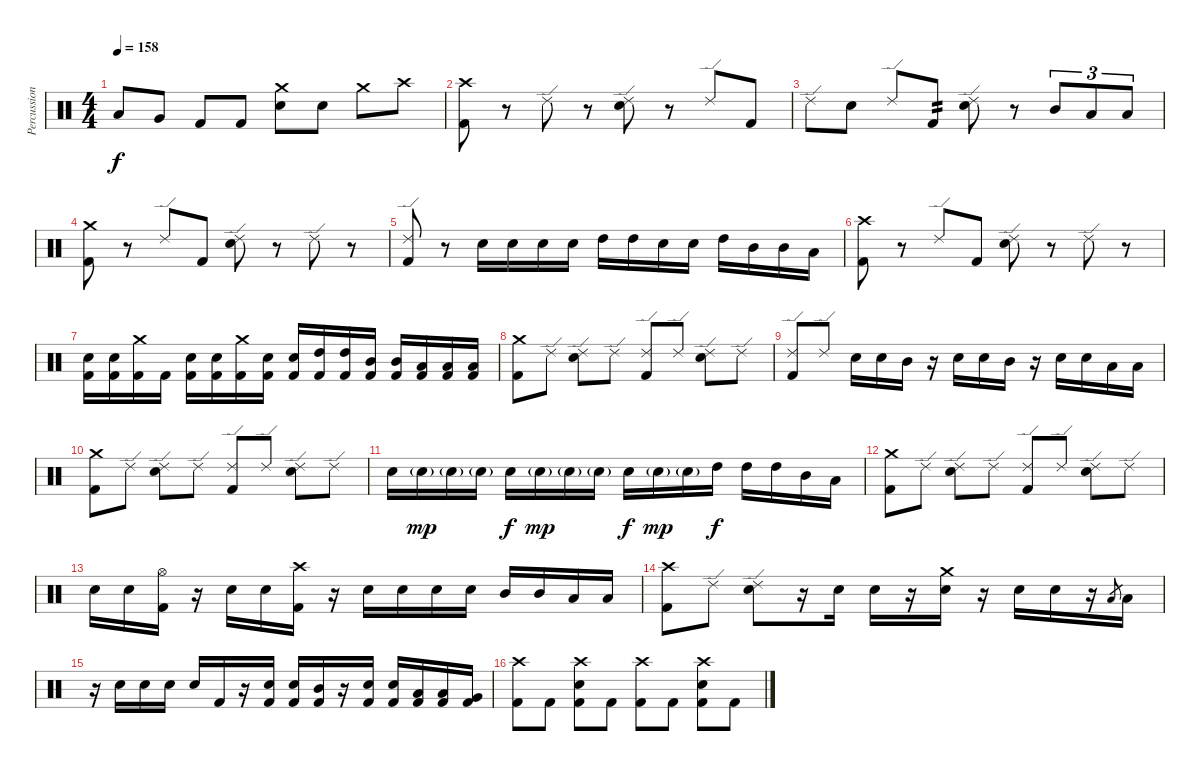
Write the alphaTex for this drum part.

\track ("Percussion" "Percussion") {instrument percussion}
\staff {score}
\articulation defaults
\ts (4 4)
\tempo 158
\clef neutral
\ks c "Low Tom (hit)".8{dy f} "Very Low Tom (hit)".8 "Kick (hit) 2".8 "Kick (hit) 2".8
("Crash medium (hit)" "Electric Snare (hit)").8 "Electric Snare (hit)".8 "Crash medium (hit)".8 "Crash high (hit)".8 |
("Crash high (hit)" "Kick (hit) 2").8 r.8 "Ride (edge) 2".8 r.8 ("Ride (edge) 2" "Electric Snare (hit)").8 r.8 "Ride (edge) 2".8 "Kick (hit) 2".8 |
"Ride (edge) 2".8 "Electric Snare (hit)".8 "Ride (edge) 2".8 "Kick (hit) 2".8{tp 2} ("Ride (edge) 2" "Electric Snare (hit)").8 r.8 "Mid Tom (hit)".8{tu (3 2)} "Low Tom (hit)".8{tu (3 2)} "Low Tom (hit)".8{tu (3 2)} |
("Crash medium (hit)" "Kick (hit) 2").8 r.8 "Ride (edge) 2".8 "Kick (hit) 2".8 ("Ride (edge) 2" "Electric Snare (hit)").8 r.8 "Ride (edge) 2".8 r.8 |
("Ride (edge) 2" "Kick (hit) 2").8 r.8 "Electric Snare (hit)".16 "Electric Snare (hit)".16 "Electric Snare (hit)".16 "Electric Snare (hit)".16 "High Tom (hit)".16 "High Tom (hit)".16 "Electric Snare (hit)".16 "Electric Snare (hit)".16 "High Tom (hit)".16 "Mid Tom (hit)".16 "Mid Tom (hit)".16 "Low Tom (hit)".16 |
("Crash high (hit)" "Kick (hit) 2").8 r.8 "Ride (edge) 2".8 "Kick (hit) 2".8 ("Ride (edge) 2" "Electric Snare (hit)").8 r.8 "Ride (edge) 2".8 r.8 |
("Electric Snare (hit)" "Kick (hit) 2").16 ("Electric Snare (hit)" "Kick (hit) 2").16 ("Crash medium (hit)" "Kick (hit) 2").16 "Kick (hit) 2".16 ("Electric Snare (hit)" "Kick (hit) 2").16 ("Electric Snare (hit)" "Kick (hit) 2").16 ("Crash medium (hit)" "Kick (hit) 2").16 ("Electric Snare (hit)" "Kick (hit) 2").16 ("Electric Snare (hit)" "Kick (hit) 2").16 ("High Tom (hit)" "Kick (hit) 2").16 ("High Tom (hit)" "Kick (hit) 2").16 ("Mid Tom (hit)" "Kick (hit) 2").16 ("Mid Tom (hit)" "Kick (hit) 2").16 ("Low Tom (hit)" "Kick (hit) 2").16 ("Low Tom (hit)" "Kick (hit) 2").16 ("Low Tom (hit)" "Kick (hit) 2").16 |
("Crash medium (hit)" "Kick (hit) 2").8 "Ride (edge) 2".8 ("Ride (edge) 2" "Electric Snare (hit)").8 "Ride (edge) 2".8 ("Ride (edge) 2" "Kick (hit) 2").8 "Ride (edge) 2".8 ("Ride (edge) 2" "Electric Snare (hit)").8 "Ride (edge) 2".8 |
("Ride (edge) 2" "Kick (hit) 2").8 "Ride (edge) 2".8 "Electric Snare (hit)".16 "Electric Snare (hit)".16 "Mid Tom (hit)".16 r.16 "Electric Snare (hit)".16 "Electric Snare (hit)".16 "Mid Tom (hit)".16 r.16 "Electric Snare (hit)".16 "Electric Snare (hit)".16 "Low Tom (hit)".16 "Low Tom (hit)".16 |
("Crash medium (hit)" "Kick (hit) 2").8 "Ride (edge) 2".8 ("Ride (edge) 2" "Electric Snare (hit)").8 "Ride (edge) 2".8 ("Ride (edge) 2" "Kick (hit) 2").8 "Ride (edge) 2".8 ("Ride (edge) 2" "Electric Snare (hit)").8 "Ride (edge) 2".8 |
"Electric Snare (hit)".16 "Electric Snare (hit)"{g}.16{dy mp} "Electric Snare (hit)"{g}.16 "Electric Snare (hit)"{g}.16 "Electric Snare (hit)".16{dy f} "Electric Snare (hit)"{g}.16{dy mp} "Electric Snare (hit)"{g}.16 "Electric Snare (hit)"{g}.16 "Electric Snare (hit)".16{dy f} "Electric Snare (hit)"{g}.16{dy mp} "Electric Snare (hit)"{g}.16 "High Tom (hit)".16{dy f} "High Tom (hit)".16 "High Tom (hit)".16 "Mid Tom (hit)".16 "Low Tom (hit)".16 |
("Crash medium (hit)" "Kick (hit) 2").8 "Ride (edge) 2".8 ("Ride (edge) 2" "Electric Snare (hit)").8 "Ride (edge) 2".8 ("Ride (edge) 2" "Kick (hit) 2").8 "Ride (edge) 2".8 ("Ride (edge) 2" "Electric Snare (hit)").8 "Ride (edge) 2".8 |
"Electric Snare (hit)".16 "Electric Snare (hit)".16 ("Hi-Hat (open)" "Kick (hit) 2").16 r.16 "Electric Snare (hit)".16 "Electric Snare (hit)".16 ("Crash high (hit)" "Kick (hit) 2").16 r.16 "Electric Snare (hit)".16 "Electric Snare (hit)".16 "Electric Snare (hit)".16 "Electric Snare (hit)".16 "Mid Tom (hit)".16 "Mid Tom (hit)".16 "Low Tom (hit)".16 "Low Tom (hit)".16 |
("Crash high (hit)" "Kick (hit) 2").8 "Ride (edge) 2".8 ("Ride (edge) 2" "Electric Snare (hit)").8 r.16 "Electric Snare (hit)".16 "Electric Snare (hit)".16 r.16 ("Crash medium (hit)" "Electric Snare (hit)").16 r.16 "Electric Snare (hit)".16 "Electric Snare (hit)".16 r.16 "Low Tom (hit)".8{gr} "Low Tom (hit)".16 |
r.16 "Electric Snare (hit)".16 "Electric Snare (hit)".16 "Electric Snare (hit)".16 "Electric Snare (hit)".16 "Kick (hit) 2".16 r.16 ("Electric Snare (hit)" "Kick (hit) 2").16 ("Electric Snare (hit)" "Kick (hit) 2").16 ("Mid Tom (hit)" "Kick (hit) 2").16 r.16 ("Electric Snare (hit)" "Kick (hit) 2").16 ("Electric Snare (hit)" "Kick (hit) 2").16 ("Low Tom (hit)" "Kick (hit) 2").16 ("Low Tom (hit)" "Kick (hit) 2").16 ("Very Low Tom (hit)" "Kick (hit) 2").16 |
("Crash high (hit)" "Kick (hit) 2").8 "Kick (hit) 2".8 ("Crash high (hit)" "Electric Snare (hit)" "Kick (hit) 2").8 "Kick (hit) 2".8 ("Crash high (hit)" "Kick (hit) 2").8 "Kick (hit) 2".8 ("Crash high (hit)" "Electric Snare (hit)" "Kick (hit) 2").8 "Kick (hit) 2".8
